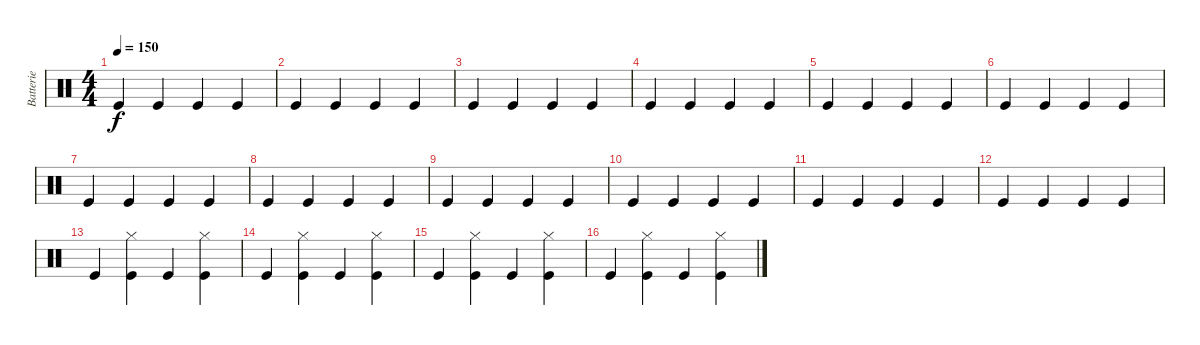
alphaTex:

\track ("Batterie" "Batterie") {instrument percussion}
\staff {score}
\articulation defaults
\ts (4 4)
\tempo 150
\clef neutral
\ks c "Kick (hit)".4{dy f} "Kick (hit)".4 "Kick (hit)".4 "Kick (hit)".4
|
"Kick (hit)".4 "Kick (hit)".4 "Kick (hit)".4 "Kick (hit)".4 |
"Kick (hit)".4 "Kick (hit)".4 "Kick (hit)".4 "Kick (hit)".4 |
"Kick (hit)".4 "Kick (hit)".4 "Kick (hit)".4 "Kick (hit)".4 |
"Kick (hit)".4 "Kick (hit)".4 "Kick (hit)".4 "Kick (hit)".4 |
"Kick (hit)".4 "Kick (hit)".4 "Kick (hit)".4 "Kick (hit)".4 |
"Kick (hit)".4 "Kick (hit)".4 "Kick (hit)".4 "Kick (hit)".4 |
"Kick (hit)".4 "Kick (hit)".4 "Kick (hit)".4 "Kick (hit)".4 |
"Kick (hit)".4 "Kick (hit)".4 "Kick (hit)".4 "Kick (hit)".4 |
"Kick (hit)".4 "Kick (hit)".4 "Kick (hit)".4 "Kick (hit)".4 |
"Kick (hit)".4 "Kick (hit)".4 "Kick (hit)".4 "Kick (hit)".4 |
"Kick (hit)".4 "Kick (hit)".4 "Kick (hit)".4 "Kick (hit)".4 |
"Kick (hit)".4 ("Hi-Hat (closed)" "Kick (hit)").4 "Kick (hit)".4 ("Hi-Hat (closed)" "Kick (hit)").4 |
"Kick (hit)".4 ("Hi-Hat (closed)" "Kick (hit)").4 "Kick (hit)".4 ("Hi-Hat (closed)" "Kick (hit)").4 |
"Kick (hit)".4 ("Hi-Hat (closed)" "Kick (hit)").4 "Kick (hit)".4 ("Hi-Hat (closed)" "Kick (hit)").4 |
"Kick (hit)".4 ("Hi-Hat (closed)" "Kick (hit)").4 "Kick (hit)".4 ("Hi-Hat (closed)" "Kick (hit)").4
